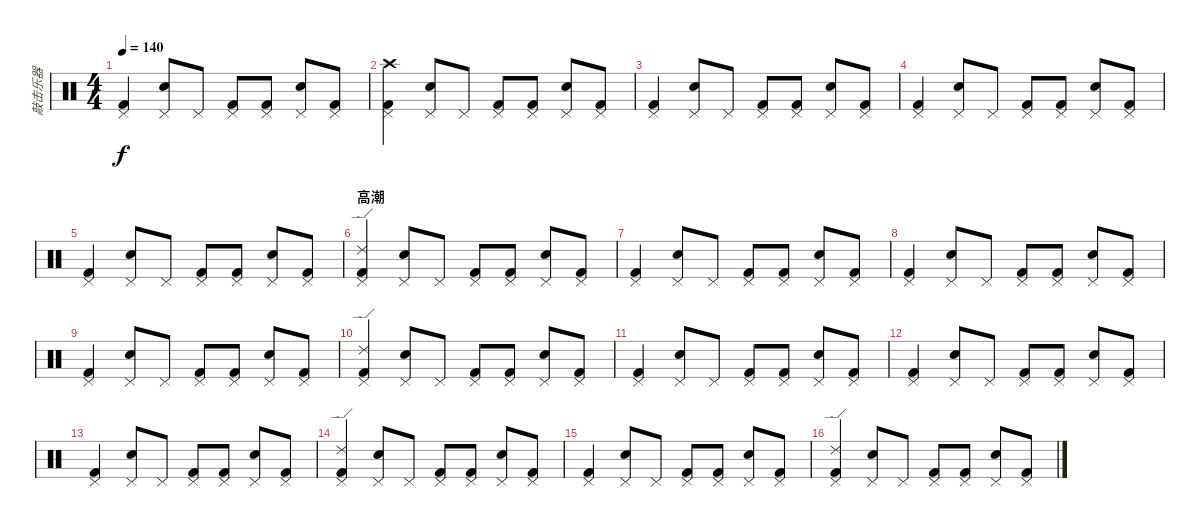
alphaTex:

\track ("敲击乐器" "敲击乐器") {instrument percussion}
\staff {score}
\articulation defaults
\ts (4 4)
\tempo 140
\clef neutral
\ks c
("Kick (hit) 2" "Pedal Hi-Hat (hit)").4{dy f} ("Snare (hit) 2" "Pedal Hi-Hat (hit)").8 "Pedal Hi-Hat (hit)".8 ("Kick (hit) 2" "Pedal Hi-Hat (hit)").8 ("Kick (hit) 2" "Pedal Hi-Hat (hit)").8 ("Snare (hit) 2" "Pedal Hi-Hat (hit)").8 ("Kick (hit) 2" "Pedal Hi-Hat (hit)").8 |
("Kick (hit) 2" "Pedal Hi-Hat (hit)" "Crash high (hit)").4 ("Snare (hit) 2" "Pedal Hi-Hat (hit)").8 "Pedal Hi-Hat (hit)".8 ("Kick (hit) 2" "Pedal Hi-Hat (hit)").8 ("Kick (hit) 2" "Pedal Hi-Hat (hit)").8 ("Snare (hit) 2" "Pedal Hi-Hat (hit)").8 ("Kick (hit) 2" "Pedal Hi-Hat (hit)").8 |
("Kick (hit) 2" "Pedal Hi-Hat (hit)").4 ("Snare (hit) 2" "Pedal Hi-Hat (hit)").8 "Pedal Hi-Hat (hit)".8 ("Kick (hit) 2" "Pedal Hi-Hat (hit)").8 ("Kick (hit) 2" "Pedal Hi-Hat (hit)").8 ("Snare (hit) 2" "Pedal Hi-Hat (hit)").8 ("Kick (hit) 2" "Pedal Hi-Hat (hit)").8 |
("Kick (hit) 2" "Pedal Hi-Hat (hit)").4 ("Snare (hit) 2" "Pedal Hi-Hat (hit)").8 "Pedal Hi-Hat (hit)".8 ("Kick (hit) 2" "Pedal Hi-Hat (hit)").8 ("Kick (hit) 2" "Pedal Hi-Hat (hit)").8 ("Snare (hit) 2" "Pedal Hi-Hat (hit)").8 ("Kick (hit) 2" "Pedal Hi-Hat (hit)").8 |
("Kick (hit) 2" "Pedal Hi-Hat (hit)").4 ("Snare (hit) 2" "Pedal Hi-Hat (hit)").8 "Pedal Hi-Hat (hit)".8 ("Kick (hit) 2" "Pedal Hi-Hat (hit)").8 ("Kick (hit) 2" "Pedal Hi-Hat (hit)").8 ("Snare (hit) 2" "Pedal Hi-Hat (hit)").8 ("Kick (hit) 2" "Pedal Hi-Hat (hit)").8 |
\section ("" "高潮")
("Kick (hit) 2" "Pedal Hi-Hat (hit)" "Ride (edge) 2").4 ("Snare (hit) 2" "Pedal Hi-Hat (hit)").8 "Pedal Hi-Hat (hit)".8 ("Kick (hit) 2" "Pedal Hi-Hat (hit)").8 ("Kick (hit) 2" "Pedal Hi-Hat (hit)").8 ("Snare (hit) 2" "Pedal Hi-Hat (hit)").8 ("Kick (hit) 2" "Pedal Hi-Hat (hit)").8 |
("Kick (hit) 2" "Pedal Hi-Hat (hit)").4 ("Snare (hit) 2" "Pedal Hi-Hat (hit)").8 "Pedal Hi-Hat (hit)".8 ("Kick (hit) 2" "Pedal Hi-Hat (hit)").8 ("Kick (hit) 2" "Pedal Hi-Hat (hit)").8 ("Snare (hit) 2" "Pedal Hi-Hat (hit)").8 ("Kick (hit) 2" "Pedal Hi-Hat (hit)").8 |
("Kick (hit) 2" "Pedal Hi-Hat (hit)").4 ("Snare (hit) 2" "Pedal Hi-Hat (hit)").8 "Pedal Hi-Hat (hit)".8 ("Kick (hit) 2" "Pedal Hi-Hat (hit)").8 ("Kick (hit) 2" "Pedal Hi-Hat (hit)").8 ("Snare (hit) 2" "Pedal Hi-Hat (hit)").8 ("Kick (hit) 2" "Pedal Hi-Hat (hit)").8 |
("Kick (hit) 2" "Pedal Hi-Hat (hit)").4 ("Snare (hit) 2" "Pedal Hi-Hat (hit)").8 "Pedal Hi-Hat (hit)".8 ("Kick (hit) 2" "Pedal Hi-Hat (hit)").8 ("Kick (hit) 2" "Pedal Hi-Hat (hit)").8 ("Snare (hit) 2" "Pedal Hi-Hat (hit)").8 ("Kick (hit) 2" "Pedal Hi-Hat (hit)").8 |
("Kick (hit) 2" "Pedal Hi-Hat (hit)" "Ride (edge) 2").4 ("Snare (hit) 2" "Pedal Hi-Hat (hit)").8 "Pedal Hi-Hat (hit)".8 ("Kick (hit) 2" "Pedal Hi-Hat (hit)").8 ("Kick (hit) 2" "Pedal Hi-Hat (hit)").8 ("Snare (hit) 2" "Pedal Hi-Hat (hit)").8 ("Kick (hit) 2" "Pedal Hi-Hat (hit)").8 |
("Kick (hit) 2" "Pedal Hi-Hat (hit)").4 ("Snare (hit) 2" "Pedal Hi-Hat (hit)").8 "Pedal Hi-Hat (hit)".8 ("Kick (hit) 2" "Pedal Hi-Hat (hit)").8 ("Kick (hit) 2" "Pedal Hi-Hat (hit)").8 ("Snare (hit) 2" "Pedal Hi-Hat (hit)").8 ("Kick (hit) 2" "Pedal Hi-Hat (hit)").8 |
("Kick (hit) 2" "Pedal Hi-Hat (hit)").4 ("Snare (hit) 2" "Pedal Hi-Hat (hit)").8 "Pedal Hi-Hat (hit)".8 ("Kick (hit) 2" "Pedal Hi-Hat (hit)").8 ("Kick (hit) 2" "Pedal Hi-Hat (hit)").8 ("Snare (hit) 2" "Pedal Hi-Hat (hit)").8 ("Kick (hit) 2" "Pedal Hi-Hat (hit)").8 |
("Kick (hit) 2" "Pedal Hi-Hat (hit)").4 ("Snare (hit) 2" "Pedal Hi-Hat (hit)").8 "Pedal Hi-Hat (hit)".8 ("Kick (hit) 2" "Pedal Hi-Hat (hit)").8 ("Kick (hit) 2" "Pedal Hi-Hat (hit)").8 ("Snare (hit) 2" "Pedal Hi-Hat (hit)").8 ("Kick (hit) 2" "Pedal Hi-Hat (hit)").8 |
("Kick (hit) 2" "Pedal Hi-Hat (hit)" "Ride (edge) 2").4 ("Snare (hit) 2" "Pedal Hi-Hat (hit)").8 "Pedal Hi-Hat (hit)".8 ("Kick (hit) 2" "Pedal Hi-Hat (hit)").8 ("Kick (hit) 2" "Pedal Hi-Hat (hit)").8 ("Snare (hit) 2" "Pedal Hi-Hat (hit)").8 ("Kick (hit) 2" "Pedal Hi-Hat (hit)").8 |
("Kick (hit) 2" "Pedal Hi-Hat (hit)").4 ("Snare (hit) 2" "Pedal Hi-Hat (hit)").8 "Pedal Hi-Hat (hit)".8 ("Kick (hit) 2" "Pedal Hi-Hat (hit)").8 ("Kick (hit) 2" "Pedal Hi-Hat (hit)").8 ("Snare (hit) 2" "Pedal Hi-Hat (hit)").8 ("Kick (hit) 2" "Pedal Hi-Hat (hit)").8 |
("Kick (hit) 2" "Pedal Hi-Hat (hit)" "Ride (edge) 2").4 ("Snare (hit) 2" "Pedal Hi-Hat (hit)").8 "Pedal Hi-Hat (hit)".8 ("Kick (hit) 2" "Pedal Hi-Hat (hit)").8 ("Kick (hit) 2" "Pedal Hi-Hat (hit)").8 ("Snare (hit) 2" "Pedal Hi-Hat (hit)").8 ("Kick (hit) 2" "Pedal Hi-Hat (hit)").8
